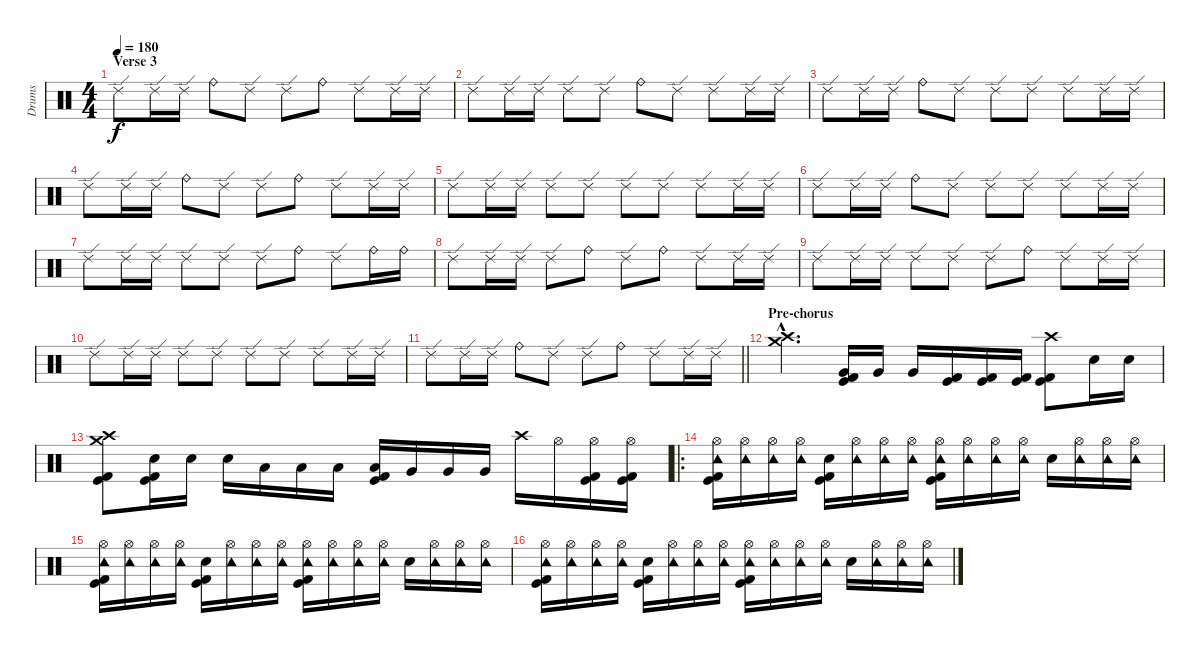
\track ("Drums" "Drums") {instrument percussion}
\staff {score}
\articulation defaults
\ts (4 4)
\section ("" "Verse 3")
\tempo 180
\clef neutral
\ks c "Ride (edge) 2".8{dy f} "Ride (edge) 2".16 "Ride (edge) 2".16 "Ride (bell)".8 "Ride (edge) 2".8 "Ride (edge) 2".8 "Ride (bell)".8 "Ride (edge) 2".8 "Ride (edge) 2".16 "Ride (edge) 2".16
|
"Ride (edge) 2".8 "Ride (edge) 2".16 "Ride (edge) 2".16 "Ride (edge) 2".8 "Ride (edge) 2".8 "Ride (bell)".8 "Ride (edge) 2".8 "Ride (edge) 2".8 "Ride (edge) 2".16 "Ride (edge) 2".16 |
"Ride (edge) 2".8 "Ride (edge) 2".16 "Ride (edge) 2".16 "Ride (bell)".8 "Ride (edge) 2".8 "Ride (edge) 2".8 "Ride (edge) 2".8 "Ride (edge) 2".8 "Ride (edge) 2".16 "Ride (edge) 2".16 |
"Ride (edge) 2".8 "Ride (edge) 2".16 "Ride (edge) 2".16 "Ride (bell)".8 "Ride (edge) 2".8 "Ride (edge) 2".8 "Ride (bell)".8 "Ride (edge) 2".8 "Ride (edge) 2".16 "Ride (edge) 2".16 |
"Ride (edge) 2".8 "Ride (edge) 2".16 "Ride (edge) 2".16 "Ride (edge) 2".8 "Ride (edge) 2".8 "Ride (edge) 2".8 "Ride (edge) 2".8 "Ride (edge) 2".8 "Ride (edge) 2".16 "Ride (edge) 2".16 |
"Ride (edge) 2".8 "Ride (edge) 2".16 "Ride (edge) 2".16 "Ride (bell)".8 "Ride (edge) 2".8 "Ride (edge) 2".8 "Ride (edge) 2".8 "Ride (edge) 2".8 "Ride (edge) 2".16 "Ride (edge) 2".16 |
"Ride (edge) 2".8 "Ride (edge) 2".16 "Ride (edge) 2".16 "Ride (edge) 2".8 "Ride (edge) 2".8 "Ride (edge) 2".8 "Ride (bell)".8 "Ride (edge) 2".8 "Ride (bell)".16 "Ride (bell)".16 |
"Ride (edge) 2".8 "Ride (edge) 2".16 "Ride (edge) 2".16 "Ride (edge) 2".8 "Ride (bell)".8 "Ride (edge) 2".8 "Ride (bell)".8 "Ride (edge) 2".8 "Ride (edge) 2".16 "Ride (edge) 2".16 |
"Ride (edge) 2".8 "Ride (edge) 2".16 "Ride (edge) 2".16 "Ride (edge) 2".8 "Ride (edge) 2".8 "Ride (edge) 2".8 "Ride (bell)".8 "Ride (edge) 2".8 "Ride (edge) 2".16 "Ride (edge) 2".16 |
"Ride (edge) 2".8 "Ride (edge) 2".16 "Ride (edge) 2".16 "Ride (edge) 2".8 "Ride (edge) 2".8 "Ride (edge) 2".8 "Ride (edge) 2".8 "Ride (edge) 2".8 "Ride (edge) 2".16 "Ride (edge) 2".16 |
\barLineRight lightlight "Ride (edge) 2".8 "Ride (edge) 2".16 "Ride (edge) 2".16 "Ride (bell)".8 "Ride (edge) 2".8 "Ride (edge) 2".8 "Ride (bell)".8 "Ride (edge) 2".8 "Ride (edge) 2".16 "Ride (edge) 2".16
|
\section ("" "Pre-chorus")
("Crash medium (hit)"{hac} "Crash high (hit)"{hac}).4{d} ("Very Low Tom (hit)" "Kick (hit)" "Kick (hit) 2").16 "Very Low Tom (hit)".16 "Very Low Tom (hit)".16 ("Kick (hit)" "Kick (hit) 2").16 ("Kick (hit)" "Kick (hit) 2").16 ("Kick (hit)" "Kick (hit) 2").16 ("Crash high (hit)" "Kick (hit)" "Kick (hit) 2").8 "Electric Snare (hit)".16 "Electric Snare (hit)".16 |
("Crash medium (hit)" "Crash high (hit)" "Kick (hit) 2" "Kick (hit)").8 ("Electric Snare (hit)" "Kick (hit) 2" "Kick (hit)").16 "Electric Snare (hit)".16 "Electric Snare (hit)".16 "Low Tom (hit)".16 "Low Tom (hit)".16 "Low Tom (hit)".16 ("Low Tom (hit)" "Kick (hit) 2" "Kick (hit)").16 "Very Low Tom (hit)".16 "Very Low Tom (hit)".16 "Very Low Tom (hit)".16 "Crash high (hit)".16 "Hi-Hat (open)".16 ("Hi-Hat (open)" "Kick (hit) 2" "Kick (hit)").16 ("Hi-Hat (open)" "Kick (hit) 2" "Kick (hit)").16 |
\ro
("Hi-Hat (open)" "Tambourine (hit)" "Kick (hit) 2" "Kick (hit)").16 ("Hi-Hat (open)" "Tambourine (hit)").16 ("Hi-Hat (open)" "Tambourine (hit)").16 ("Hi-Hat (open)" "Tambourine (hit)").16 ("Electric Snare (hit)" "Kick (hit) 2" "Kick (hit)").16 ("Hi-Hat (open)" "Tambourine (hit)").16 ("Hi-Hat (open)" "Tambourine (hit)").16 ("Hi-Hat (open)" "Tambourine (hit)").16 ("Hi-Hat (open)" "Tambourine (hit)" "Kick (hit) 2" "Kick (hit)").16 ("Hi-Hat (open)" "Tambourine (hit)").16 ("Hi-Hat (open)" "Tambourine (hit)").16 ("Hi-Hat (open)" "Tambourine (hit)").16 "Electric Snare (hit)".16 ("Hi-Hat (open)" "Tambourine (hit)").16 ("Hi-Hat (open)" "Tambourine (hit)").16 ("Hi-Hat (open)" "Tambourine (hit)").16 |
("Hi-Hat (open)" "Tambourine (hit)" "Kick (hit) 2" "Kick (hit)").16 ("Hi-Hat (open)" "Tambourine (hit)").16 ("Hi-Hat (open)" "Tambourine (hit)").16 ("Hi-Hat (open)" "Tambourine (hit)").16 ("Electric Snare (hit)" "Kick (hit) 2" "Kick (hit)").16 ("Hi-Hat (open)" "Tambourine (hit)").16 ("Hi-Hat (open)" "Tambourine (hit)").16 ("Hi-Hat (open)" "Tambourine (hit)").16 ("Hi-Hat (open)" "Tambourine (hit)" "Kick (hit) 2" "Kick (hit)").16 ("Hi-Hat (open)" "Tambourine (hit)").16 ("Hi-Hat (open)" "Tambourine (hit)").16 ("Hi-Hat (open)" "Tambourine (hit)").16 "Electric Snare (hit)".16 ("Hi-Hat (open)" "Tambourine (hit)").16 ("Hi-Hat (open)" "Tambourine (hit)").16 ("Hi-Hat (open)" "Tambourine (hit)").16 |
("Hi-Hat (open)" "Tambourine (hit)" "Kick (hit) 2" "Kick (hit)").16 ("Hi-Hat (open)" "Tambourine (hit)").16 ("Hi-Hat (open)" "Tambourine (hit)").16 ("Hi-Hat (open)" "Tambourine (hit)").16 ("Electric Snare (hit)" "Kick (hit) 2" "Kick (hit)").16 ("Hi-Hat (open)" "Tambourine (hit)").16 ("Hi-Hat (open)" "Tambourine (hit)").16 ("Hi-Hat (open)" "Tambourine (hit)").16 ("Hi-Hat (open)" "Tambourine (hit)" "Kick (hit) 2" "Kick (hit)").16 ("Hi-Hat (open)" "Tambourine (hit)").16 ("Hi-Hat (open)" "Tambourine (hit)").16 ("Hi-Hat (open)" "Tambourine (hit)").16 "Electric Snare (hit)".16 ("Hi-Hat (open)" "Tambourine (hit)").16 ("Hi-Hat (open)" "Tambourine (hit)").16 ("Hi-Hat (open)" "Tambourine (hit)").16
